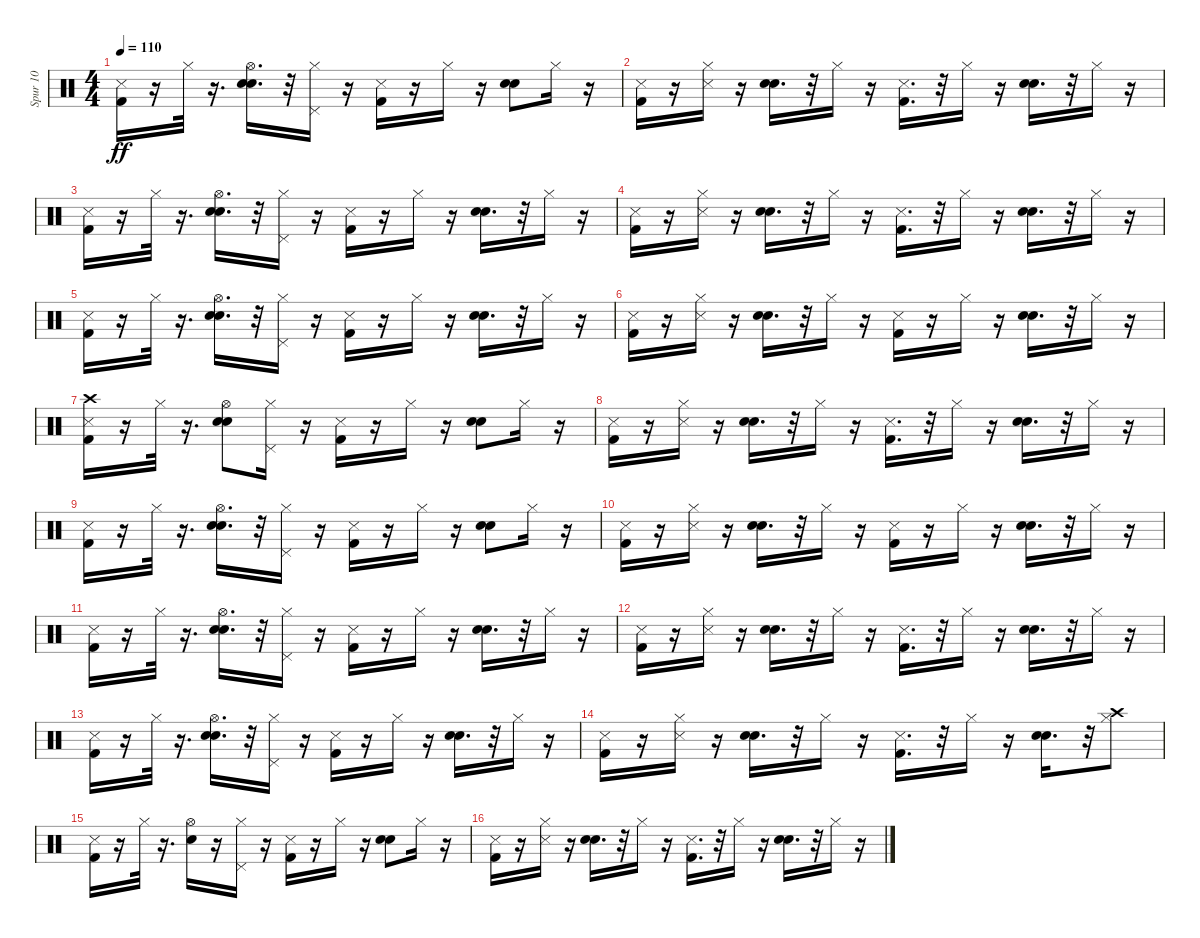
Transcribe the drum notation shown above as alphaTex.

\track ("Spur 10" "Spur 10") {instrument percussion}
\staff {score}
\articulation defaults
\ts (4 4)
\tempo 110
\clef neutral
\ks c
("Kick (hit) 2" "Snare (side stick) 3").16{dy ff} r.16 "Hi-Hat (closed)".32 r.16{d} ("Hand Clap (hit)" "Electric Snare (hit)" "Hi-Hat (open)").16{d} r.32 ("Hi-Hat (closed)" "Pedal Hi-Hat (hit)").16 r.16 ("Kick (hit) 2" "Snare (side stick) 3").16 r.16 "Hi-Hat (closed)".16 r.16 ("Hand Clap (hit)" "Electric Snare (hit)").8 "Hi-Hat (closed)".16 r.16 |
("Kick (hit) 2" "Snare (side stick) 3").16 r.16 ("Snare (side stick) 3" "Hi-Hat (closed)").16 r.16 ("Hand Clap (hit)" "Electric Snare (hit)").16{d} r.32 "Hi-Hat (closed)".16 r.16 ("Kick (hit) 2" "Snare (side stick) 3").16{d} r.32 "Hi-Hat (closed)".16 r.16 ("Electric Snare (hit)" "Hand Clap (hit)").16{d} r.32 "Hi-Hat (closed)".16 r.16 |
("Kick (hit) 2" "Snare (side stick) 3").16 r.16 "Hi-Hat (closed)".32 r.16{d} ("Hand Clap (hit)" "Electric Snare (hit)" "Hi-Hat (open)").16{d} r.32 ("Hi-Hat (closed)" "Pedal Hi-Hat (hit)").16 r.16 ("Kick (hit) 2" "Snare (side stick) 3").16 r.16 "Hi-Hat (closed)".16 r.16 ("Hand Clap (hit)" "Electric Snare (hit)").16{d} r.32 "Hi-Hat (closed)".16 r.16 |
("Kick (hit) 2" "Snare (side stick) 3").16 r.16 ("Snare (side stick) 3" "Hi-Hat (closed)").16 r.16 ("Electric Snare (hit)" "Hand Clap (hit)").16{d} r.32 "Hi-Hat (closed)".16 r.16 ("Kick (hit) 2" "Snare (side stick) 3").16{d} r.32 "Hi-Hat (closed)".16 r.16 ("Hand Clap (hit)" "Electric Snare (hit)").16{d} r.32 "Hi-Hat (closed)".16 r.16 |
("Kick (hit) 2" "Snare (side stick) 3").16 r.16 "Hi-Hat (closed)".32 r.16{d} ("Hand Clap (hit)" "Electric Snare (hit)" "Hi-Hat (open)").16{d} r.32 ("Hi-Hat (closed)" "Pedal Hi-Hat (hit)").16 r.16 ("Kick (hit) 2" "Snare (side stick) 3").16 r.16 "Hi-Hat (closed)".16 r.16 ("Hand Clap (hit)" "Electric Snare (hit)").16{d} r.32 "Hi-Hat (closed)".16 r.16 |
("Kick (hit) 2" "Snare (side stick) 3").16 r.16 ("Snare (side stick) 3" "Hi-Hat (closed)").16 r.16 ("Hand Clap (hit)" "Electric Snare (hit)").16{d} r.32 "Hi-Hat (closed)".16 r.16 ("Kick (hit) 2" "Snare (side stick) 3").16 r.16 "Hi-Hat (closed)".16 r.16 ("Hand Clap (hit)" "Electric Snare (hit)").16{d} r.32 "Hi-Hat (closed)".16 r.16 |
("Kick (hit) 2" "Snare (side stick) 3" "Crash high (hit)").16 r.16 "Hi-Hat (closed)".32 r.16{d} ("Hand Clap (hit)" "Electric Snare (hit)" "Hi-Hat (open)").8 ("Hi-Hat (closed)" "Pedal Hi-Hat (hit)").16 r.16 ("Kick (hit) 2" "Snare (side stick) 3").16 r.16 "Hi-Hat (closed)".16 r.16 ("Electric Snare (hit)" "Hand Clap (hit)").8 "Hi-Hat (closed)".16 r.16 |
("Kick (hit) 2" "Snare (side stick) 3").16 r.16 ("Snare (side stick) 3" "Hi-Hat (closed)").16 r.16 ("Hand Clap (hit)" "Electric Snare (hit)").16{d} r.32 "Hi-Hat (closed)".16 r.16 ("Kick (hit) 2" "Snare (side stick) 3").16{d} r.32 "Hi-Hat (closed)".16 r.16 ("Hand Clap (hit)" "Electric Snare (hit)").16{d} r.32 "Hi-Hat (closed)".16 r.16 |
("Kick (hit) 2" "Snare (side stick) 3").16 r.16 "Hi-Hat (closed)".32 r.16{d} ("Hand Clap (hit)" "Electric Snare (hit)" "Hi-Hat (open)").16{d} r.32 ("Hi-Hat (closed)" "Pedal Hi-Hat (hit)").16 r.16 ("Kick (hit) 2" "Snare (side stick) 3").16 r.16 "Hi-Hat (closed)".16 r.16 ("Hand Clap (hit)" "Electric Snare (hit)").8 "Hi-Hat (closed)".16 r.16 |
("Kick (hit) 2" "Snare (side stick) 3").16 r.16 ("Snare (side stick) 3" "Hi-Hat (closed)").16 r.16 ("Hand Clap (hit)" "Electric Snare (hit)").16{d} r.32 "Hi-Hat (closed)".16 r.16 ("Kick (hit) 2" "Snare (side stick) 3").16 r.16 "Hi-Hat (closed)".16 r.16 ("Electric Snare (hit)" "Hand Clap (hit)").16{d} r.32 "Hi-Hat (closed)".16 r.16 |
("Kick (hit) 2" "Snare (side stick) 3").16 r.16 "Hi-Hat (closed)".32 r.16{d} ("Hand Clap (hit)" "Electric Snare (hit)" "Hi-Hat (open)").16{d} r.32 ("Hi-Hat (closed)" "Pedal Hi-Hat (hit)").16 r.16 ("Kick (hit) 2" "Snare (side stick) 3").16 r.16 "Hi-Hat (closed)".16 r.16 ("Hand Clap (hit)" "Electric Snare (hit)").16{d} r.32 "Hi-Hat (closed)".16 r.16 |
("Kick (hit) 2" "Snare (side stick) 3").16 r.16 ("Snare (side stick) 3" "Hi-Hat (closed)").16 r.16 ("Hand Clap (hit)" "Electric Snare (hit)").16{d} r.32 "Hi-Hat (closed)".16 r.16 ("Kick (hit) 2" "Snare (side stick) 3").16{d} r.32 "Hi-Hat (closed)".16 r.16 ("Electric Snare (hit)" "Hand Clap (hit)").16{d} r.32 "Hi-Hat (closed)".16 r.16 |
("Kick (hit) 2" "Snare (side stick) 3").16 r.16 "Hi-Hat (closed)".32 r.16{d} ("Hand Clap (hit)" "Electric Snare (hit)" "Hi-Hat (open)").16{d} r.32 ("Hi-Hat (closed)" "Pedal Hi-Hat (hit)").16 r.16 ("Kick (hit) 2" "Snare (side stick) 3").16 r.16 "Hi-Hat (closed)".16 r.16 ("Hand Clap (hit)" "Electric Snare (hit)").16{d} r.32 "Hi-Hat (closed)".16 r.16 |
("Kick (hit) 2" "Snare (side stick) 3").16 r.16 ("Snare (side stick) 3" "Hi-Hat (closed)").16 r.16 ("Hand Clap (hit)" "Electric Snare (hit)").16{d} r.32 "Hi-Hat (closed)".16 r.16 ("Kick (hit) 2" "Snare (side stick) 3").16{d} r.32 "Hi-Hat (closed)".16 r.16 ("Hand Clap (hit)" "Electric Snare (hit)").16{d} r.32 ("Hi-Hat (closed)" "Crash high (hit)").8 |
("Kick (hit) 2" "Snare (side stick) 3").16 r.16 "Hi-Hat (closed)".32 r.16{d} ("Electric Snare (hit)" "Hi-Hat (open)").16 r.16 ("Hi-Hat (closed)" "Pedal Hi-Hat (hit)").16 r.16 ("Kick (hit) 2" "Snare (side stick) 3").16 r.16 "Hi-Hat (closed)".16 r.16 ("Electric Snare (hit)" "Hand Clap (hit)").8 "Hi-Hat (closed)".16 r.16 |
("Kick (hit) 2" "Snare (side stick) 3").16 r.16 ("Snare (side stick) 3" "Hi-Hat (closed)").16 r.16 ("Hand Clap (hit)" "Electric Snare (hit)").16{d} r.32 "Hi-Hat (closed)".16 r.16 ("Kick (hit) 2" "Snare (side stick) 3").16{d} r.32 "Hi-Hat (closed)".16 r.16 ("Hand Clap (hit)" "Electric Snare (hit)").16{d} r.32 "Hi-Hat (closed)".16 r.16
